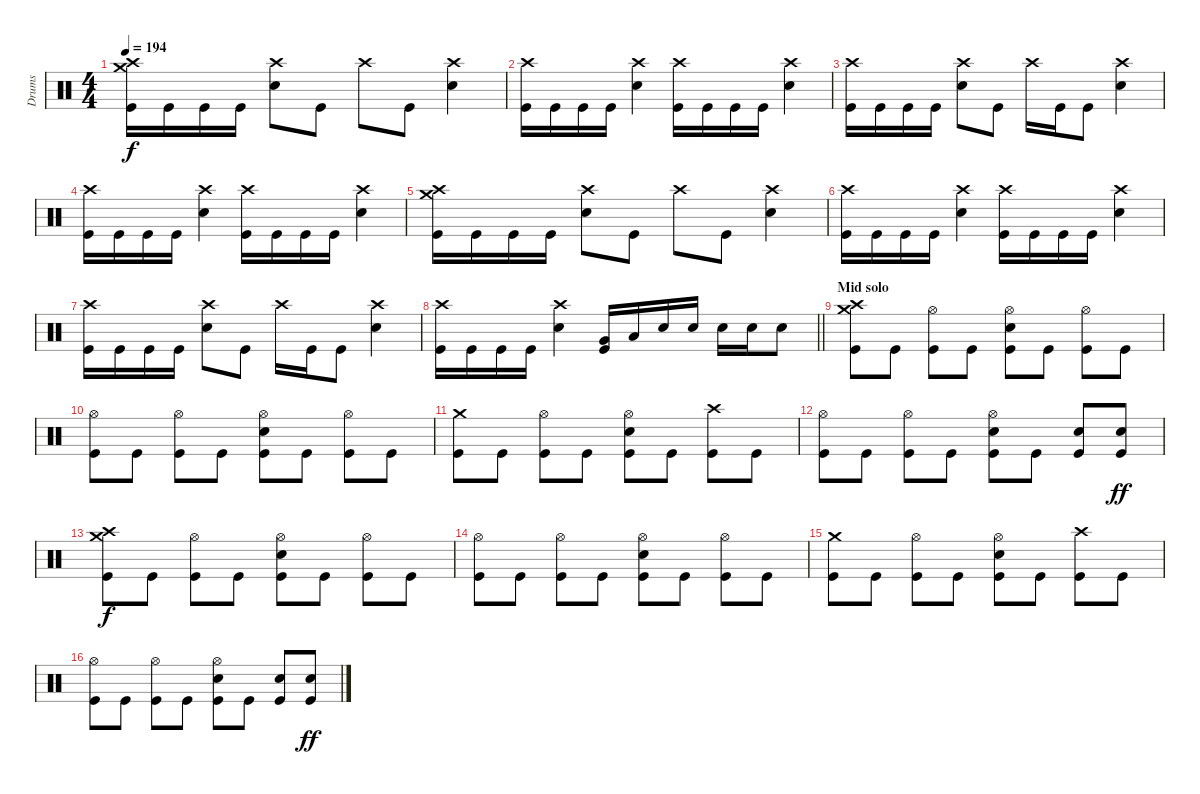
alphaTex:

\track ("Drums" "Drums") {instrument percussion}
\staff {score}
\articulation defaults
\ts (4 4)
\tempo 194
\clef neutral
\ks c
("Crash high (hit)" "Crash medium (hit)" "Kick (hit)").16{dy f} "Kick (hit)".16 "Kick (hit)".16 "Kick (hit)".16 ("Crash high (hit)" "Snare (hit) 2").8 "Kick (hit)".8 "Crash high (hit)".8 "Kick (hit)".8 ("Crash high (hit)" "Snare (hit) 2").4 |
("Crash high (hit)" "Kick (hit)").16 "Kick (hit)".16 "Kick (hit)".16 "Kick (hit)".16 ("Crash high (hit)" "Snare (hit) 2").4 ("Crash high (hit)" "Kick (hit)").16 "Kick (hit)".16 "Kick (hit)".16 "Kick (hit)".16 ("Crash high (hit)" "Snare (hit) 2").4 |
("Crash high (hit)" "Kick (hit)").16 "Kick (hit)".16 "Kick (hit)".16 "Kick (hit)".16 ("Crash high (hit)" "Snare (hit) 2").8 "Kick (hit)".8 "Crash high (hit)".16 "Kick (hit)".16 "Kick (hit)".8 ("Crash high (hit)" "Snare (hit) 2").4 |
("Crash high (hit)" "Kick (hit)").16 "Kick (hit)".16 "Kick (hit)".16 "Kick (hit)".16 ("Crash high (hit)" "Snare (hit) 2").4 ("Crash high (hit)" "Kick (hit)").16 "Kick (hit)".16 "Kick (hit)".16 "Kick (hit)".16 ("Crash high (hit)" "Snare (hit) 2").4 |
("Crash high (hit)" "Crash medium (hit)" "Kick (hit)").16 "Kick (hit)".16 "Kick (hit)".16 "Kick (hit)".16 ("Crash high (hit)" "Snare (hit) 2").8 "Kick (hit)".8 "Crash high (hit)".8 "Kick (hit)".8 ("Crash high (hit)" "Snare (hit) 2").4 |
("Crash high (hit)" "Kick (hit)").16 "Kick (hit)".16 "Kick (hit)".16 "Kick (hit)".16 ("Crash high (hit)" "Snare (hit) 2").4 ("Crash high (hit)" "Kick (hit)").16 "Kick (hit)".16 "Kick (hit)".16 "Kick (hit)".16 ("Crash high (hit)" "Snare (hit) 2").4 |
("Crash high (hit)" "Kick (hit)").16 "Kick (hit)".16 "Kick (hit)".16 "Kick (hit)".16 ("Crash high (hit)" "Snare (hit) 2").8 "Kick (hit)".8 "Crash high (hit)".16 "Kick (hit)".16 "Kick (hit)".8 ("Crash high (hit)" "Snare (hit) 2").4 |
\barLineRight lightlight
("Crash high (hit)" "Kick (hit)").16 "Kick (hit)".16 "Kick (hit)".16 "Kick (hit)".16 ("Crash high (hit)" "Snare (hit) 2").4 ("Very Low Tom (hit)" "Kick (hit)").16 "Low Tom (hit)".16 "Snare (hit) 2".16 "Snare (hit) 2".16 "Snare (hit) 2".16 "Snare (hit) 2".16 "Snare (hit) 2".8 |
\section ("" "Mid solo")
("Crash medium (hit)" "Crash high (hit)" "Kick (hit)").8 "Kick (hit)".8 ("Hi-Hat (open)" "Kick (hit)").8 "Kick (hit)".8 ("Hi-Hat (open)" "Snare (hit) 2" "Kick (hit)").8 "Kick (hit)".8 ("Hi-Hat (open)" "Kick (hit)").8 "Kick (hit)".8 |
("Hi-Hat (open)" "Kick (hit)").8 "Kick (hit)".8 ("Hi-Hat (open)" "Kick (hit)").8 "Kick (hit)".8 ("Hi-Hat (open)" "Snare (hit) 2" "Kick (hit)").8 "Kick (hit)".8 ("Hi-Hat (open)" "Kick (hit)").8 "Kick (hit)".8 |
("Crash medium (hit)" "Kick (hit)").8 "Kick (hit)".8 ("Hi-Hat (open)" "Kick (hit)").8 "Kick (hit)".8 ("Hi-Hat (open)" "Snare (hit) 2" "Kick (hit)").8 "Kick (hit)".8 ("Crash high (hit)" "Kick (hit)").8 "Kick (hit)".8 |
("Hi-Hat (open)" "Kick (hit)").8 "Kick (hit)".8 ("Hi-Hat (open)" "Kick (hit)").8 "Kick (hit)".8 ("Hi-Hat (open)" "Snare (hit) 2" "Kick (hit)").8 "Kick (hit)".8 ("Snare (hit) 2" "Kick (hit)").8 ("Snare (hit) 2" "Kick (hit)").8{dy ff} |
("Crash medium (hit)" "Crash high (hit)" "Kick (hit)").8{dy f} "Kick (hit)".8 ("Hi-Hat (open)" "Kick (hit)").8 "Kick (hit)".8 ("Hi-Hat (open)" "Snare (hit) 2" "Kick (hit)").8 "Kick (hit)".8 ("Hi-Hat (open)" "Kick (hit)").8 "Kick (hit)".8 |
("Hi-Hat (open)" "Kick (hit)").8 "Kick (hit)".8 ("Hi-Hat (open)" "Kick (hit)").8 "Kick (hit)".8 ("Hi-Hat (open)" "Snare (hit) 2" "Kick (hit)").8 "Kick (hit)".8 ("Hi-Hat (open)" "Kick (hit)").8 "Kick (hit)".8 |
("Crash medium (hit)" "Kick (hit)").8 "Kick (hit)".8 ("Hi-Hat (open)" "Kick (hit)").8 "Kick (hit)".8 ("Hi-Hat (open)" "Snare (hit) 2" "Kick (hit)").8 "Kick (hit)".8 ("Crash high (hit)" "Kick (hit)").8 "Kick (hit)".8 |
("Hi-Hat (open)" "Kick (hit)").8 "Kick (hit)".8 ("Hi-Hat (open)" "Kick (hit)").8 "Kick (hit)".8 ("Hi-Hat (open)" "Snare (hit) 2" "Kick (hit)").8 "Kick (hit)".8 ("Snare (hit) 2" "Kick (hit)").8 ("Snare (hit) 2" "Kick (hit)").8{dy ff}
